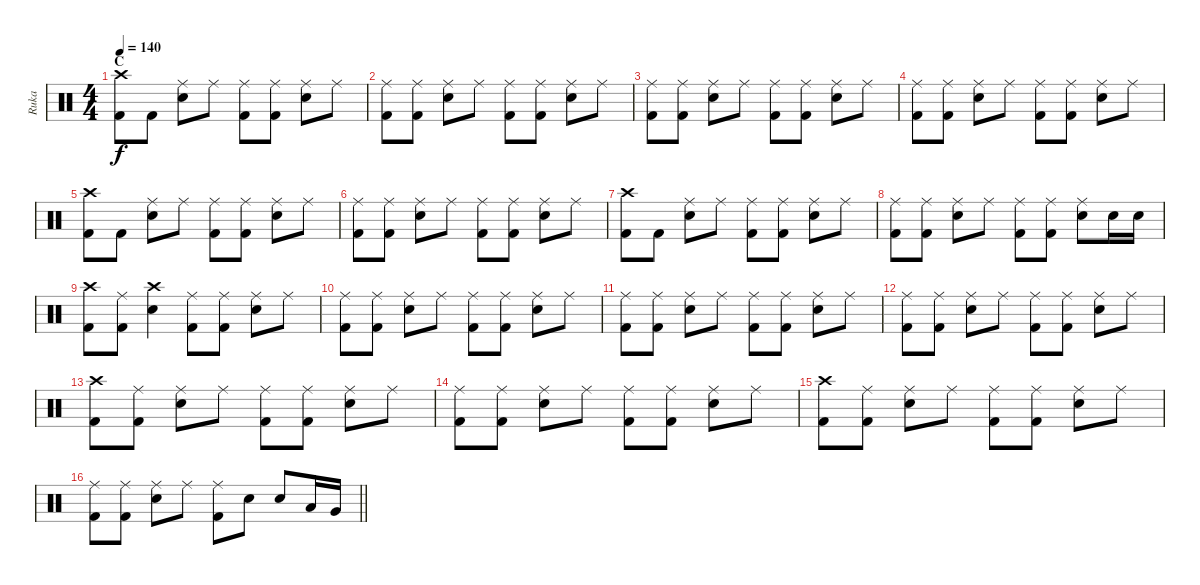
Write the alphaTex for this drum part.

\track ("Ruka" "Ruka") {instrument percussion}
\staff {score}
\articulation defaults
\ts (4 4)
\section ("" "C")
\tempo 140
\clef neutral
\ks c
("Crash high (hit)" "Kick (hit) 2").8{dy f} "Kick (hit) 2".8 ("Ride (middle)" "Snare (hit) 2").8 "Ride (middle)".8 ("Ride (middle)" "Kick (hit) 2").8 ("Ride (middle)" "Kick (hit) 2").8 ("Ride (middle)" "Snare (hit) 2").8 "Ride (middle)".8 |
("Ride (middle)" "Kick (hit) 2").8 ("Ride (middle)" "Kick (hit) 2").8 ("Ride (middle)" "Snare (hit) 2").8 "Ride (middle)".8 ("Ride (middle)" "Kick (hit) 2").8 ("Ride (middle)" "Kick (hit) 2").8 ("Ride (middle)" "Snare (hit) 2").8 "Ride (middle)".8 |
("Ride (middle)" "Kick (hit) 2").8 ("Ride (middle)" "Kick (hit) 2").8 ("Ride (middle)" "Snare (hit) 2").8 "Ride (middle)".8 ("Ride (middle)" "Kick (hit) 2").8 ("Ride (middle)" "Kick (hit) 2").8 ("Ride (middle)" "Snare (hit) 2").8 "Ride (middle)".8 |
("Ride (middle)" "Kick (hit) 2").8 ("Ride (middle)" "Kick (hit) 2").8 ("Ride (middle)" "Snare (hit) 2").8 "Ride (middle)".8 ("Ride (middle)" "Kick (hit) 2").8 ("Ride (middle)" "Kick (hit) 2").8 ("Ride (middle)" "Snare (hit) 2").8 "Ride (middle)".8 |
("Crash high (hit)" "Kick (hit) 2").8 "Kick (hit) 2".8 ("Ride (middle)" "Snare (hit) 2").8 "Ride (middle)".8 ("Ride (middle)" "Kick (hit) 2").8 ("Ride (middle)" "Kick (hit) 2").8 ("Ride (middle)" "Snare (hit) 2").8 "Ride (middle)".8 |
("Ride (middle)" "Kick (hit) 2").8 ("Ride (middle)" "Kick (hit) 2").8 ("Ride (middle)" "Snare (hit) 2").8 "Ride (middle)".8 ("Ride (middle)" "Kick (hit) 2").8 ("Ride (middle)" "Kick (hit) 2").8 ("Ride (middle)" "Snare (hit) 2").8 "Ride (middle)".8 |
("Crash high (hit)" "Kick (hit) 2").8 "Kick (hit) 2".8 ("Ride (middle)" "Snare (hit) 2").8 "Ride (middle)".8 ("Ride (middle)" "Kick (hit) 2").8 ("Ride (middle)" "Kick (hit) 2").8 ("Ride (middle)" "Snare (hit) 2").8 "Ride (middle)".8 |
("Ride (middle)" "Kick (hit) 2").8 ("Ride (middle)" "Kick (hit) 2").8 ("Ride (middle)" "Snare (hit) 2").8 "Ride (middle)".8 ("Ride (middle)" "Kick (hit) 2").8 ("Ride (middle)" "Kick (hit) 2").8 ("Ride (middle)" "Snare (hit) 2").8 "Snare (hit) 2".16 "Snare (hit) 2".16 |
("Crash high (hit)" "Kick (hit) 2").8 ("Ride (middle)" "Kick (hit) 2").8 ("Crash high (hit)" "Snare (hit) 2").4 ("Ride (middle)" "Kick (hit) 2").8 ("Ride (middle)" "Kick (hit) 2").8 ("Ride (middle)" "Snare (hit) 2").8 "Ride (middle)".8 |
("Ride (middle)" "Kick (hit) 2").8 ("Ride (middle)" "Kick (hit) 2").8 ("Ride (middle)" "Snare (hit) 2").8 "Ride (middle)".8 ("Ride (middle)" "Kick (hit) 2").8 ("Ride (middle)" "Kick (hit) 2").8 ("Ride (middle)" "Snare (hit) 2").8 "Ride (middle)".8 |
("Ride (middle)" "Kick (hit) 2").8 ("Ride (middle)" "Kick (hit) 2").8 ("Ride (middle)" "Snare (hit) 2").8 "Ride (middle)".8 ("Ride (middle)" "Kick (hit) 2").8 ("Ride (middle)" "Kick (hit) 2").8 ("Ride (middle)" "Snare (hit) 2").8 "Ride (middle)".8 |
("Ride (middle)" "Kick (hit) 2").8 ("Ride (middle)" "Kick (hit) 2").8 ("Ride (middle)" "Snare (hit) 2").8 "Ride (middle)".8 ("Ride (middle)" "Kick (hit) 2").8 ("Ride (middle)" "Kick (hit) 2").8 ("Ride (middle)" "Snare (hit) 2").8 "Ride (middle)".8 |
("Crash high (hit)" "Kick (hit) 2").8 ("Ride (middle)" "Kick (hit) 2").8 ("Ride (middle)" "Snare (hit) 2").8 "Ride (middle)".8 ("Ride (middle)" "Kick (hit) 2").8 ("Ride (middle)" "Kick (hit) 2").8 ("Ride (middle)" "Snare (hit) 2").8 "Ride (middle)".8 |
("Ride (middle)" "Kick (hit) 2").8 ("Ride (middle)" "Kick (hit) 2").8 ("Ride (middle)" "Snare (hit) 2").8 "Ride (middle)".8 ("Ride (middle)" "Kick (hit) 2").8 ("Ride (middle)" "Kick (hit) 2").8 ("Ride (middle)" "Snare (hit) 2").8 "Ride (middle)".8 |
("Crash high (hit)" "Kick (hit) 2").8 ("Ride (middle)" "Kick (hit) 2").8 ("Ride (middle)" "Snare (hit) 2").8 "Ride (middle)".8 ("Ride (middle)" "Kick (hit) 2").8 ("Ride (middle)" "Kick (hit) 2").8 ("Ride (middle)" "Snare (hit) 2").8 "Ride (middle)".8 |
\barLineRight lightlight
("Ride (middle)" "Kick (hit) 2").8 ("Ride (middle)" "Kick (hit) 2").8 ("Ride (middle)" "Snare (hit) 2").8 "Ride (middle)".8 ("Ride (middle)" "Kick (hit) 2").8 "Snare (hit) 2".8 "Snare (hit) 2".8 "Low Tom (hit)".16 "Very Low Tom (hit)".16
